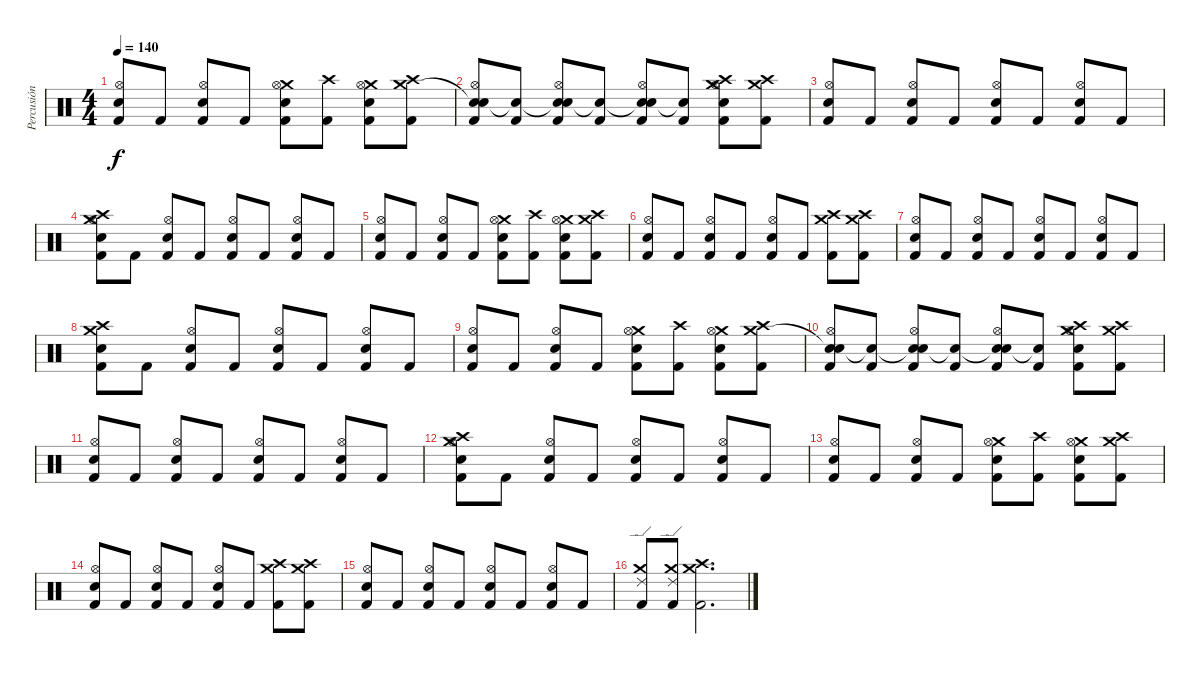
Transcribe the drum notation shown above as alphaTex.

\track ("Percusión" "Percusión") {instrument percussion}
\staff {score}
\articulation defaults
\ts (4 4)
\tempo 140
\clef neutral
\ks c
("Snare (hit) 2" "Hi-Hat (open)" "Kick (hit) 2").8{dy f} "Kick (hit) 2".8 ("Snare (hit) 2" "Hi-Hat (open)" "Kick (hit) 2").8 "Kick (hit) 2".8 ("Crash medium (hit)" "Snare (hit) 2" "Hi-Hat (open)" "Kick (hit) 2").8 ("Crash high (hit)" "Kick (hit) 2").8 ("Crash medium (hit)" "Snare (hit) 2" "Hi-Hat (open)" "Kick (hit) 2").8 ("Crash medium (hit)" "Crash high (hit)" "Kick (hit) 2").8 |
("Snare (hit)"{t} "Snare (hit) 2" "Hi-Hat (open)" "Kick (hit) 2").8 ("Snare (hit)"{t} "Kick (hit) 2").8 ("Snare (hit)"{t} "Snare (hit) 2" "Hi-Hat (open)" "Kick (hit) 2").8 ("Snare (hit)"{t} "Kick (hit) 2").8 ("Snare (hit)"{t} "Snare (hit) 2" "Hi-Hat (open)" "Kick (hit) 2").8 ("Snare (hit)"{t} "Kick (hit) 2").8 ("Crash high (hit)" "Crash medium (hit)" "Snare (hit) 2" "Hi-Hat (open)" "Kick (hit) 2").8 ("Crash high (hit)" "Crash medium (hit)" "Kick (hit) 2").8 |
("Snare (hit) 2" "Hi-Hat (open)" "Kick (hit) 2").8 "Kick (hit) 2".8 ("Snare (hit) 2" "Hi-Hat (open)" "Kick (hit) 2").8 "Kick (hit) 2".8 ("Snare (hit) 2" "Hi-Hat (open)" "Kick (hit) 2").8 "Kick (hit) 2".8 ("Snare (hit) 2" "Hi-Hat (open)" "Kick (hit) 2").8 "Kick (hit) 2".8 |
("Crash medium (hit)" "Crash high (hit)" "Snare (hit) 2" "Hi-Hat (open)" "Kick (hit) 2").8 "Kick (hit) 2".8 ("Snare (hit) 2" "Hi-Hat (open)" "Kick (hit) 2").8 "Kick (hit) 2".8 ("Snare (hit) 2" "Hi-Hat (open)" "Kick (hit) 2").8 "Kick (hit) 2".8 ("Snare (hit) 2" "Hi-Hat (open)" "Kick (hit) 2").8 "Kick (hit) 2".8 |
("Snare (hit) 2" "Hi-Hat (open)" "Kick (hit) 2").8 "Kick (hit) 2".8 ("Snare (hit) 2" "Hi-Hat (open)" "Kick (hit) 2").8 "Kick (hit) 2".8 ("Crash medium (hit)" "Snare (hit) 2" "Hi-Hat (open)" "Kick (hit) 2").8 ("Crash high (hit)" "Kick (hit) 2").8 ("Crash medium (hit)" "Snare (hit) 2" "Hi-Hat (open)" "Kick (hit) 2").8 ("Crash medium (hit)" "Crash high (hit)" "Kick (hit) 2").8 |
("Snare (hit) 2" "Hi-Hat (open)" "Kick (hit) 2").8 "Kick (hit) 2".8 ("Snare (hit) 2" "Hi-Hat (open)" "Kick (hit) 2").8 "Kick (hit) 2".8 ("Snare (hit) 2" "Hi-Hat (open)" "Kick (hit) 2").8 "Kick (hit) 2".8 ("Crash medium (hit)" "Crash high (hit)" "Kick (hit) 2").8 ("Crash medium (hit)" "Crash high (hit)" "Kick (hit) 2").8 |
("Snare (hit) 2" "Hi-Hat (open)" "Kick (hit) 2").8 "Kick (hit) 2".8 ("Snare (hit) 2" "Hi-Hat (open)" "Kick (hit) 2").8 "Kick (hit) 2".8 ("Snare (hit) 2" "Hi-Hat (open)" "Kick (hit) 2").8 "Kick (hit) 2".8 ("Snare (hit) 2" "Hi-Hat (open)" "Kick (hit) 2").8 "Kick (hit) 2".8 |
("Crash high (hit)" "Snare (hit) 2" "Crash medium (hit)" "Kick (hit) 2").8 "Kick (hit) 2".8 ("Snare (hit) 2" "Hi-Hat (open)" "Kick (hit) 2").8 "Kick (hit) 2".8 ("Snare (hit) 2" "Hi-Hat (open)" "Kick (hit) 2").8 "Kick (hit) 2".8 ("Snare (hit) 2" "Hi-Hat (open)" "Kick (hit) 2").8 "Kick (hit) 2".8 |
("Snare (hit) 2" "Hi-Hat (open)" "Kick (hit) 2").8 "Kick (hit) 2".8 ("Snare (hit) 2" "Hi-Hat (open)" "Kick (hit) 2").8 "Kick (hit) 2".8 ("Crash medium (hit)" "Snare (hit) 2" "Hi-Hat (open)" "Kick (hit) 2").8 ("Crash high (hit)" "Kick (hit) 2").8 ("Crash medium (hit)" "Snare (hit) 2" "Hi-Hat (open)" "Kick (hit) 2").8 ("Crash medium (hit)" "Crash high (hit)" "Kick (hit) 2").8 |
("Snare (hit)"{t} "Snare (hit) 2" "Hi-Hat (open)" "Kick (hit) 2").8 ("Snare (hit)"{t} "Kick (hit) 2").8 ("Snare (hit)"{t} "Snare (hit) 2" "Hi-Hat (open)" "Kick (hit) 2").8 ("Snare (hit)"{t} "Kick (hit) 2").8 ("Snare (hit)"{t} "Snare (hit) 2" "Hi-Hat (open)" "Kick (hit) 2").8 ("Snare (hit)"{t} "Kick (hit) 2").8 ("Crash high (hit)" "Crash medium (hit)" "Snare (hit) 2" "Hi-Hat (open)" "Kick (hit) 2").8 ("Crash high (hit)" "Crash medium (hit)" "Kick (hit) 2").8 |
("Snare (hit) 2" "Hi-Hat (open)" "Kick (hit) 2").8 "Kick (hit) 2".8 ("Snare (hit) 2" "Hi-Hat (open)" "Kick (hit) 2").8 "Kick (hit) 2".8 ("Snare (hit) 2" "Hi-Hat (open)" "Kick (hit) 2").8 "Kick (hit) 2".8 ("Snare (hit) 2" "Hi-Hat (open)" "Kick (hit) 2").8 "Kick (hit) 2".8 |
("Crash medium (hit)" "Crash high (hit)" "Snare (hit) 2" "Hi-Hat (open)" "Kick (hit) 2").8 "Kick (hit) 2".8 ("Snare (hit) 2" "Hi-Hat (open)" "Kick (hit) 2").8 "Kick (hit) 2".8 ("Snare (hit) 2" "Hi-Hat (open)" "Kick (hit) 2").8 "Kick (hit) 2".8 ("Snare (hit) 2" "Hi-Hat (open)" "Kick (hit) 2").8 "Kick (hit) 2".8 |
("Snare (hit) 2" "Hi-Hat (open)" "Kick (hit) 2").8 "Kick (hit) 2".8 ("Snare (hit) 2" "Hi-Hat (open)" "Kick (hit) 2").8 "Kick (hit) 2".8 ("Crash medium (hit)" "Snare (hit) 2" "Hi-Hat (open)" "Kick (hit) 2").8 ("Crash high (hit)" "Kick (hit) 2").8 ("Crash medium (hit)" "Snare (hit) 2" "Hi-Hat (open)" "Kick (hit) 2").8 ("Crash medium (hit)" "Crash high (hit)" "Kick (hit) 2").8 |
("Snare (hit) 2" "Hi-Hat (open)" "Kick (hit) 2").8 "Kick (hit) 2".8 ("Snare (hit) 2" "Hi-Hat (open)" "Kick (hit) 2").8 "Kick (hit) 2".8 ("Snare (hit) 2" "Hi-Hat (open)" "Kick (hit) 2").8 "Kick (hit) 2".8 ("Crash medium (hit)" "Crash high (hit)" "Kick (hit) 2").8 ("Crash medium (hit)" "Crash high (hit)" "Kick (hit) 2").8 |
("Snare (hit) 2" "Hi-Hat (open)" "Kick (hit) 2").8 "Kick (hit) 2".8 ("Snare (hit) 2" "Hi-Hat (open)" "Kick (hit) 2").8 "Kick (hit) 2".8 ("Snare (hit) 2" "Hi-Hat (open)" "Kick (hit) 2").8 "Kick (hit) 2".8 ("Snare (hit) 2" "Hi-Hat (open)" "Kick (hit) 2").8 "Kick (hit) 2".8 |
("Ride (edge) 2" "Crash medium (hit)" "Kick (hit) 2").8 ("Ride (edge) 2" "Crash medium (hit)" "Kick (hit) 2").8 ("Crash high (hit)" "Crash medium (hit)" "Kick (hit) 2").2{d}
